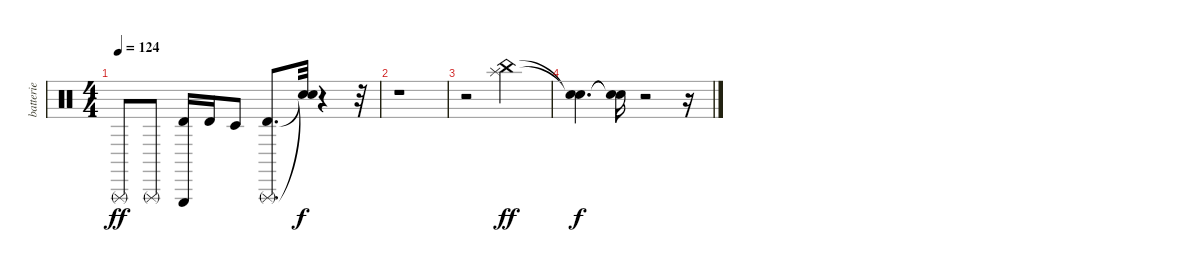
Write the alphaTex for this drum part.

\track ("batterie" "batterie") {instrument percussion}
\staff {score}
\articulation defaults
\ts (4 4)
\tempo 124
\clef neutral
\ks c "Triangle (rnute)".8{dy ff} "Triangle (rnute)".8
("Timbale high (hit)" "Triangle (hit)").16 "Timbale high (hit)".16 "Timbale low (hit)".8 ("Timbale high (hit)" "Triangle (rnute)").8{d} ("Snare (hit)"{t} "Snare (hit)"{t}).32{dy f} r.4 r.32 |
r.1 |
r.2 ("China (hit)" "Splash (hit)").2{dy ff} |
("Snare (hit)"{t} "Snare (hit)"{t}).4{d dy f} ("Snare (hit)"{t} "Snare (hit)"{t}).16 r.2 r.16
